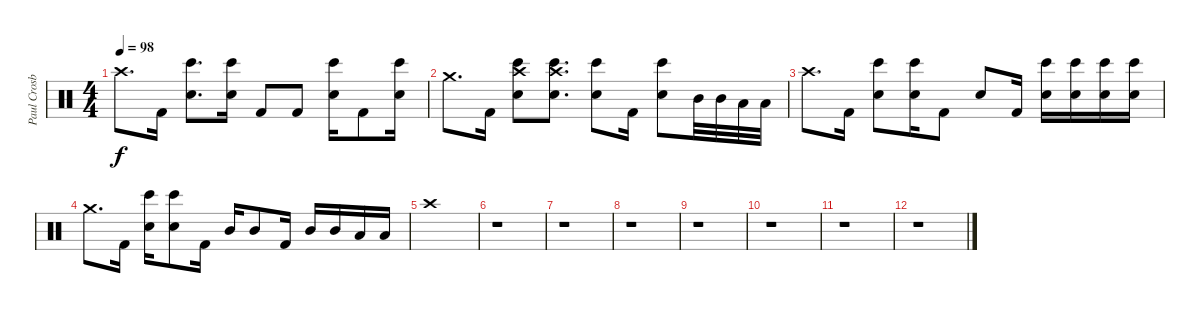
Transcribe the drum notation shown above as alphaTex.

\track ("Paul Crosby (Drums)" "Paul Crosb") {instrument percussion}
\staff {score}
\articulation defaults
\ts (4 4)
\tempo 98
\clef neutral
\ks c "Crash high (hit)".8{d dy f} "Kick (hit) 2".16
("Electric Snare (hit)" "Bongo High (hit)").8{d} ("Electric Snare (hit)" "Bongo High (hit)").16 "Kick (hit) 2".8 "Kick (hit) 2".8 ("Electric Snare (hit)" "Bongo High (hit)").16 "Kick (hit) 2".8 ("Electric Snare (hit)" "Bongo High (hit)").16 |
"Crash medium (hit)".8{d} "Kick (hit) 2".16 ("Crash high (hit)" "Electric Snare (hit)" "Bongo High (hit)").8 ("Crash high (hit)" "Electric Snare (hit)" "Bongo High (hit)").8{d} ("Electric Snare (hit)" "Bongo High (hit)").8 "Kick (hit) 2".16 ("Electric Snare (hit)" "Bongo High (hit)").8 "Mid Tom (hit)".32 "Mid Tom (hit)".32 "Low Tom (hit)".32 "Low Tom (hit)".32 |
"Crash high (hit)".8{d} "Kick (hit) 2".16 ("Electric Snare (hit)" "Bongo High (hit)").8 ("Electric Snare (hit)" "Bongo High (hit)").16 "Kick (hit) 2".8 "Electric Snare (hit)".8 "Kick (hit) 2".16 ("Electric Snare (hit)" "Bongo High (hit)").16 ("Electric Snare (hit)" "Bongo High (hit)").16 ("Electric Snare (hit)" "Bongo High (hit)").16 ("Electric Snare (hit)" "Bongo High (hit)").16 |
"Crash medium (hit)".8{d} "Kick (hit) 2".16 ("Electric Snare (hit)" "Bongo High (hit)").16 ("Electric Snare (hit)" "Bongo High (hit)").8 "Kick (hit) 2".16 "Mid Tom (hit)".16 "Mid Tom (hit)".8 "Kick (hit) 2".16 "Mid Tom (hit)".16 "Mid Tom (hit)".16 "Low Tom (hit)".16 "Low Tom (hit)".16 |
"Crash high (hit)".1 |
r.1 |
r.1 |
r.1 |
r.1 |
r.1 |
r.1 |
r.1
